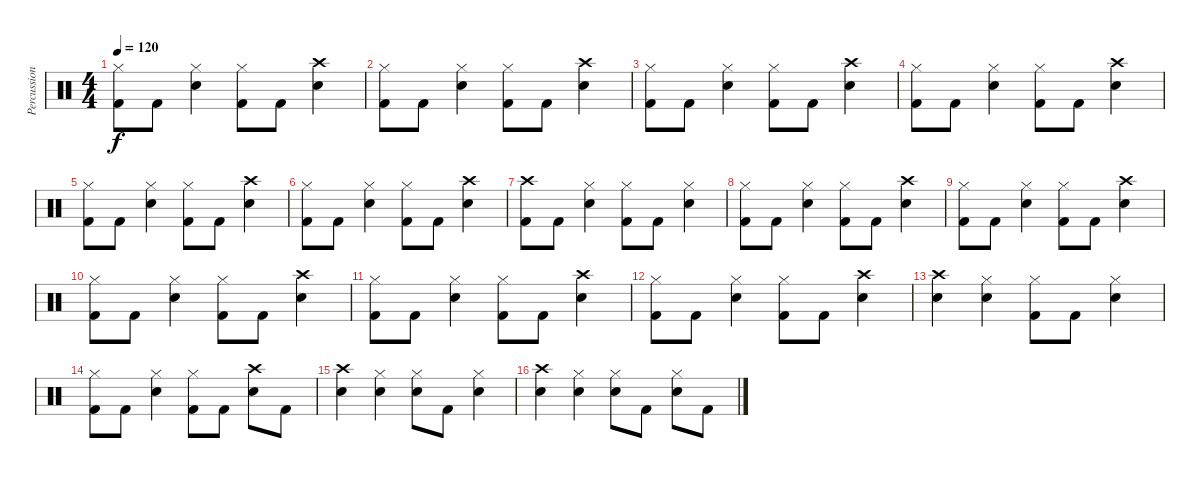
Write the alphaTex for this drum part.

\track ("Percussion" "Percussion") {instrument percussion}
\staff {score}
\articulation defaults
\ts (4 4)
\tempo 120
\clef neutral
\ks c
("Hi-Hat (closed)" "Kick (hit) 2").8{dy f} "Kick (hit) 2".8 ("Hi-Hat (closed)" "Snare (hit) 2").4 ("Hi-Hat (closed)" "Kick (hit) 2").8 "Kick (hit) 2".8 ("Crash high (hit)" "Snare (hit) 2").4 |
("Hi-Hat (closed)" "Kick (hit) 2").8 "Kick (hit) 2".8 ("Hi-Hat (closed)" "Snare (hit) 2").4 ("Hi-Hat (closed)" "Kick (hit) 2").8 "Kick (hit) 2".8 ("Crash high (hit)" "Snare (hit) 2").4 |
("Hi-Hat (closed)" "Kick (hit) 2").8 "Kick (hit) 2".8 ("Hi-Hat (closed)" "Snare (hit) 2").4 ("Hi-Hat (closed)" "Kick (hit) 2").8 "Kick (hit) 2".8 ("Crash high (hit)" "Snare (hit) 2").4 |
("Hi-Hat (closed)" "Kick (hit) 2").8 "Kick (hit) 2".8 ("Hi-Hat (closed)" "Snare (hit) 2").4 ("Hi-Hat (closed)" "Kick (hit) 2").8 "Kick (hit) 2".8 ("Crash high (hit)" "Snare (hit) 2").4 |
("Hi-Hat (closed)" "Kick (hit) 2").8 "Kick (hit) 2".8 ("Hi-Hat (closed)" "Snare (hit) 2").4 ("Hi-Hat (closed)" "Kick (hit) 2").8 "Kick (hit) 2".8 ("Crash high (hit)" "Snare (hit) 2").4 |
("Hi-Hat (closed)" "Kick (hit) 2").8 "Kick (hit) 2".8 ("Hi-Hat (closed)" "Snare (hit) 2").4 ("Hi-Hat (closed)" "Kick (hit) 2").8 "Kick (hit) 2".8 ("Crash high (hit)" "Snare (hit) 2").4 |
("Crash high (hit)" "Kick (hit) 2").8 "Kick (hit) 2".8 ("Hi-Hat (closed)" "Snare (hit) 2").4 ("Hi-Hat (closed)" "Kick (hit) 2").8 "Kick (hit) 2".8 ("Hi-Hat (closed)" "Snare (hit) 2").4 |
("Hi-Hat (closed)" "Kick (hit) 2").8 "Kick (hit) 2".8 ("Hi-Hat (closed)" "Snare (hit) 2").4 ("Hi-Hat (closed)" "Kick (hit) 2").8 "Kick (hit) 2".8 ("Crash high (hit)" "Snare (hit) 2").4 |
("Hi-Hat (closed)" "Kick (hit) 2").8 "Kick (hit) 2".8 ("Hi-Hat (closed)" "Snare (hit) 2").4 ("Hi-Hat (closed)" "Kick (hit) 2").8 "Kick (hit) 2".8 ("Crash high (hit)" "Snare (hit) 2").4 |
("Hi-Hat (closed)" "Kick (hit) 2").8 "Kick (hit) 2".8 ("Hi-Hat (closed)" "Snare (hit) 2").4 ("Hi-Hat (closed)" "Kick (hit) 2").8 "Kick (hit) 2".8 ("Crash high (hit)" "Snare (hit) 2").4 |
("Hi-Hat (closed)" "Kick (hit) 2").8 "Kick (hit) 2".8 ("Hi-Hat (closed)" "Snare (hit) 2").4 ("Hi-Hat (closed)" "Kick (hit) 2").8 "Kick (hit) 2".8 ("Crash high (hit)" "Snare (hit) 2").4 |
("Hi-Hat (closed)" "Kick (hit) 2").8 "Kick (hit) 2".8 ("Hi-Hat (closed)" "Snare (hit) 2").4 ("Hi-Hat (closed)" "Kick (hit) 2").8 "Kick (hit) 2".8 ("Crash high (hit)" "Snare (hit) 2").4 |
("Crash high (hit)" "Snare (hit) 2").4 ("Hi-Hat (closed)" "Snare (hit) 2").4 ("Hi-Hat (closed)" "Kick (hit) 2").8 "Kick (hit) 2".8 ("Hi-Hat (closed)" "Snare (hit) 2").4 |
("Hi-Hat (closed)" "Kick (hit) 2").8 "Kick (hit) 2".8 ("Hi-Hat (closed)" "Snare (hit) 2").4 ("Hi-Hat (closed)" "Kick (hit) 2").8 "Kick (hit) 2".8 ("Crash high (hit)" "Snare (hit) 2").8 "Kick (hit) 2".8 |
("Crash high (hit)" "Snare (hit) 2").4 ("Hi-Hat (closed)" "Snare (hit) 2").4 ("Hi-Hat (closed)" "Snare (hit) 2").8 "Kick (hit) 2".8 ("Hi-Hat (closed)" "Snare (hit) 2").4 |
("Crash high (hit)" "Snare (hit) 2").4 ("Hi-Hat (closed)" "Snare (hit) 2").4 ("Hi-Hat (closed)" "Snare (hit) 2").8 "Kick (hit) 2".8 ("Hi-Hat (closed)" "Snare (hit) 2").8 "Kick (hit) 2".8
